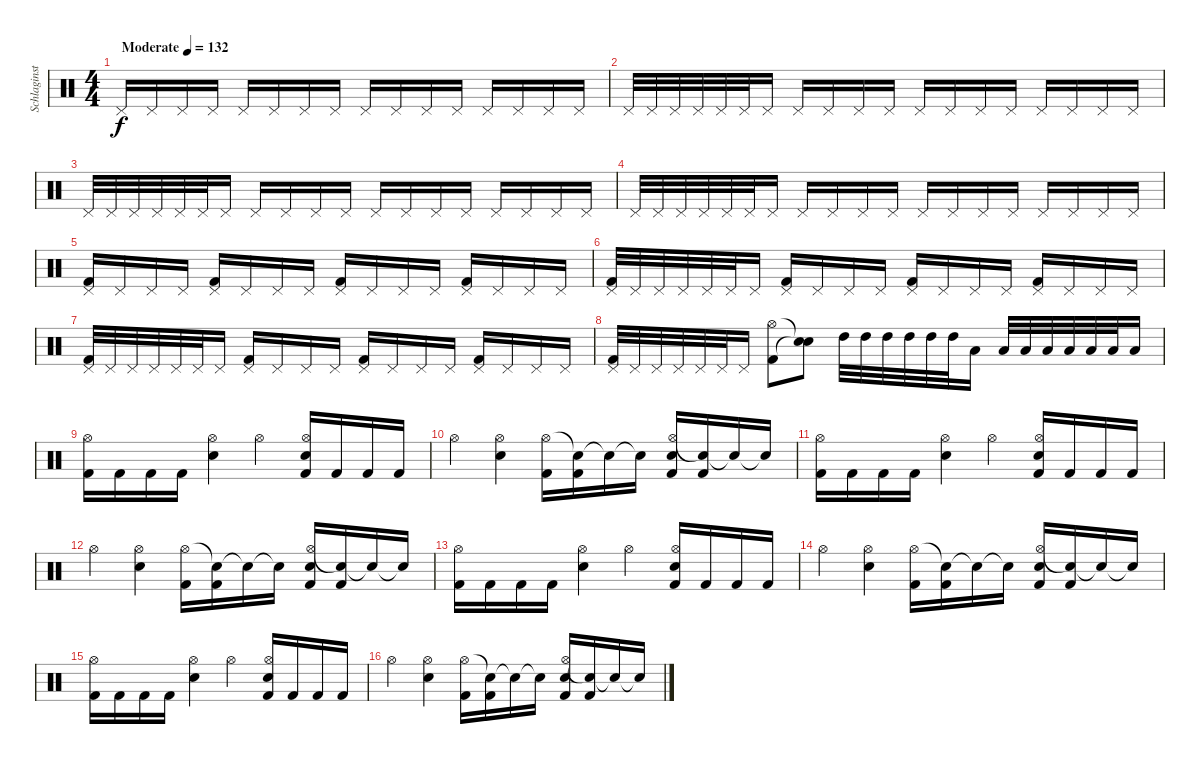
\track ("Schlaginstrumente - Auswahl" "Schlaginst") {instrument percussion}
\staff {score}
\articulation defaults
\ts (4 4)
\tempo (132 "Moderate")
\clef neutral
\ks c "Pedal Hi-Hat (hit)".16{dy f} "Pedal Hi-Hat (hit)".16 "Pedal Hi-Hat (hit)".16 "Pedal Hi-Hat (hit)".16 "Pedal Hi-Hat (hit)".16 "Pedal Hi-Hat (hit)".16 "Pedal Hi-Hat (hit)".16 "Pedal Hi-Hat (hit)".16 "Pedal Hi-Hat (hit)".16 "Pedal Hi-Hat (hit)".16 "Pedal Hi-Hat (hit)".16 "Pedal Hi-Hat (hit)".16 "Pedal Hi-Hat (hit)".16 "Pedal Hi-Hat (hit)".16 "Pedal Hi-Hat (hit)".16 "Pedal Hi-Hat (hit)".16
|
"Pedal Hi-Hat (hit)".32 "Pedal Hi-Hat (hit)".32 "Pedal Hi-Hat (hit)".32 "Pedal Hi-Hat (hit)".32 "Pedal Hi-Hat (hit)".32 "Pedal Hi-Hat (hit)".32 "Pedal Hi-Hat (hit)".16 "Pedal Hi-Hat (hit)".16 "Pedal Hi-Hat (hit)".16 "Pedal Hi-Hat (hit)".16 "Pedal Hi-Hat (hit)".16 "Pedal Hi-Hat (hit)".16 "Pedal Hi-Hat (hit)".16 "Pedal Hi-Hat (hit)".16 "Pedal Hi-Hat (hit)".16 "Pedal Hi-Hat (hit)".16 "Pedal Hi-Hat (hit)".16 "Pedal Hi-Hat (hit)".16 "Pedal Hi-Hat (hit)".16 |
"Pedal Hi-Hat (hit)".32 "Pedal Hi-Hat (hit)".32 "Pedal Hi-Hat (hit)".32 "Pedal Hi-Hat (hit)".32 "Pedal Hi-Hat (hit)".32 "Pedal Hi-Hat (hit)".32 "Pedal Hi-Hat (hit)".16 "Pedal Hi-Hat (hit)".16 "Pedal Hi-Hat (hit)".16 "Pedal Hi-Hat (hit)".16 "Pedal Hi-Hat (hit)".16 "Pedal Hi-Hat (hit)".16 "Pedal Hi-Hat (hit)".16 "Pedal Hi-Hat (hit)".16 "Pedal Hi-Hat (hit)".16 "Pedal Hi-Hat (hit)".16 "Pedal Hi-Hat (hit)".16 "Pedal Hi-Hat (hit)".16 "Pedal Hi-Hat (hit)".16 |
"Pedal Hi-Hat (hit)".32 "Pedal Hi-Hat (hit)".32 "Pedal Hi-Hat (hit)".32 "Pedal Hi-Hat (hit)".32 "Pedal Hi-Hat (hit)".32 "Pedal Hi-Hat (hit)".32 "Pedal Hi-Hat (hit)".16 "Pedal Hi-Hat (hit)".16 "Pedal Hi-Hat (hit)".16 "Pedal Hi-Hat (hit)".16 "Pedal Hi-Hat (hit)".16 "Pedal Hi-Hat (hit)".16 "Pedal Hi-Hat (hit)".16 "Pedal Hi-Hat (hit)".16 "Pedal Hi-Hat (hit)".16 "Pedal Hi-Hat (hit)".16 "Pedal Hi-Hat (hit)".16 "Pedal Hi-Hat (hit)".16 "Pedal Hi-Hat (hit)".16 |
("Pedal Hi-Hat (hit)" "Kick (hit) 2").16 "Pedal Hi-Hat (hit)".16 "Pedal Hi-Hat (hit)".16 "Pedal Hi-Hat (hit)".16 ("Pedal Hi-Hat (hit)" "Kick (hit) 2").16 "Pedal Hi-Hat (hit)".16 "Pedal Hi-Hat (hit)".16 "Pedal Hi-Hat (hit)".16 ("Pedal Hi-Hat (hit)" "Kick (hit) 2").16 "Pedal Hi-Hat (hit)".16 "Pedal Hi-Hat (hit)".16 "Pedal Hi-Hat (hit)".16 ("Pedal Hi-Hat (hit)" "Kick (hit) 2").16 "Pedal Hi-Hat (hit)".16 "Pedal Hi-Hat (hit)".16 "Pedal Hi-Hat (hit)".16 |
("Pedal Hi-Hat (hit)" "Kick (hit) 2").32 "Pedal Hi-Hat (hit)".32 "Pedal Hi-Hat (hit)".32 "Pedal Hi-Hat (hit)".32 "Pedal Hi-Hat (hit)".32 "Pedal Hi-Hat (hit)".32 "Pedal Hi-Hat (hit)".16 ("Pedal Hi-Hat (hit)" "Kick (hit) 2").16 "Pedal Hi-Hat (hit)".16 "Pedal Hi-Hat (hit)".16 "Pedal Hi-Hat (hit)".16 ("Pedal Hi-Hat (hit)" "Kick (hit) 2").16 "Pedal Hi-Hat (hit)".16 "Pedal Hi-Hat (hit)".16 "Pedal Hi-Hat (hit)".16 ("Pedal Hi-Hat (hit)" "Kick (hit) 2").16 "Pedal Hi-Hat (hit)".16 "Pedal Hi-Hat (hit)".16 "Pedal Hi-Hat (hit)".16 |
("Pedal Hi-Hat (hit)" "Kick (hit) 2").32 "Pedal Hi-Hat (hit)".32 "Pedal Hi-Hat (hit)".32 "Pedal Hi-Hat (hit)".32 "Pedal Hi-Hat (hit)".32 "Pedal Hi-Hat (hit)".32 "Pedal Hi-Hat (hit)".16 ("Pedal Hi-Hat (hit)" "Kick (hit) 2").16 "Pedal Hi-Hat (hit)".16 "Pedal Hi-Hat (hit)".16 "Pedal Hi-Hat (hit)".16 ("Pedal Hi-Hat (hit)" "Kick (hit) 2").16 "Pedal Hi-Hat (hit)".16 "Pedal Hi-Hat (hit)".16 "Pedal Hi-Hat (hit)".16 ("Pedal Hi-Hat (hit)" "Kick (hit) 2").16 "Pedal Hi-Hat (hit)".16 "Pedal Hi-Hat (hit)".16 "Pedal Hi-Hat (hit)".16 |
("Pedal Hi-Hat (hit)" "Kick (hit) 2").32 "Pedal Hi-Hat (hit)".32 "Pedal Hi-Hat (hit)".32 "Pedal Hi-Hat (hit)".32 "Pedal Hi-Hat (hit)".32 "Pedal Hi-Hat (hit)".32 "Pedal Hi-Hat (hit)".16 ("Hi-Hat (open)" "Kick (hit) 2").8 ("Snare (hit)"{t} "Snare (hit)"{t}).8 "High Tom (hit)".32 "High Tom (hit)".32 "High Tom (hit)".32 "High Tom (hit)".32 "High Tom (hit)".32 "High Tom (hit)".32 "Low Tom (hit)".16 "Low Tom (hit)".32 "Low Tom (hit)".32 "Low Tom (hit)".32 "Low Tom (hit)".32 "Low Tom (hit)".32 "Low Tom (hit)".32 "Low Floor Tom (hit)".16 |
("Hi-Hat (open)" "Kick (hit) 2").16 "Kick (hit) 2".16 "Kick (hit) 2".16 "Kick (hit) 2".16 ("Hi-Hat (open)" "Electric Snare (hit)").4 "Hi-Hat (open)".4 ("Hi-Hat (open)" "Electric Snare (hit)" "Kick (hit) 2").16 "Kick (hit) 2".16 "Kick (hit) 2".16 "Kick (hit) 2".16 |
"Hi-Hat (open)".4 ("Hi-Hat (open)" "Electric Snare (hit)").4 ("Hi-Hat (open)" "Kick (hit) 2").16 ("Snare (hit)"{t} "Kick (hit) 2").16 "Snare (hit)"{t}.16 "Snare (hit)"{t}.16 ("Hi-Hat (open)" "Electric Snare (hit)" "Kick (hit) 2").16 ("Snare (hit)"{t} "Kick (hit) 2").16 "Snare (hit)"{t}.16 "Snare (hit)"{t}.16 |
("Hi-Hat (open)" "Kick (hit) 2").16 "Kick (hit) 2".16 "Kick (hit) 2".16 "Kick (hit) 2".16 ("Hi-Hat (open)" "Electric Snare (hit)").4 "Hi-Hat (open)".4 ("Hi-Hat (open)" "Electric Snare (hit)" "Kick (hit) 2").16 "Kick (hit) 2".16 "Kick (hit) 2".16 "Kick (hit) 2".16 |
"Hi-Hat (open)".4 ("Hi-Hat (open)" "Electric Snare (hit)").4 ("Hi-Hat (open)" "Kick (hit) 2").16 ("Snare (hit)"{t} "Kick (hit) 2").16 "Snare (hit)"{t}.16 "Snare (hit)"{t}.16 ("Hi-Hat (open)" "Electric Snare (hit)" "Kick (hit) 2").16 ("Snare (hit)"{t} "Kick (hit) 2").16 "Snare (hit)"{t}.16 "Snare (hit)"{t}.16 |
("Hi-Hat (open)" "Kick (hit) 2").16 "Kick (hit) 2".16 "Kick (hit) 2".16 "Kick (hit) 2".16 ("Hi-Hat (open)" "Electric Snare (hit)").4 "Hi-Hat (open)".4 ("Hi-Hat (open)" "Electric Snare (hit)" "Kick (hit) 2").16 "Kick (hit) 2".16 "Kick (hit) 2".16 "Kick (hit) 2".16 |
"Hi-Hat (open)".4 ("Hi-Hat (open)" "Electric Snare (hit)").4 ("Hi-Hat (open)" "Kick (hit) 2").16 ("Snare (hit)"{t} "Kick (hit) 2").16 "Snare (hit)"{t}.16 "Snare (hit)"{t}.16 ("Hi-Hat (open)" "Electric Snare (hit)" "Kick (hit) 2").16 ("Snare (hit)"{t} "Kick (hit) 2").16 "Snare (hit)"{t}.16 "Snare (hit)"{t}.16 |
("Hi-Hat (open)" "Kick (hit) 2").16 "Kick (hit) 2".16 "Kick (hit) 2".16 "Kick (hit) 2".16 ("Hi-Hat (open)" "Electric Snare (hit)").4 "Hi-Hat (open)".4 ("Hi-Hat (open)" "Electric Snare (hit)" "Kick (hit) 2").16 "Kick (hit) 2".16 "Kick (hit) 2".16 "Kick (hit) 2".16 |
"Hi-Hat (open)".4 ("Hi-Hat (open)" "Electric Snare (hit)").4 ("Hi-Hat (open)" "Kick (hit) 2").16 ("Snare (hit)"{t} "Kick (hit) 2").16 "Snare (hit)"{t}.16 "Snare (hit)"{t}.16 ("Hi-Hat (open)" "Electric Snare (hit)" "Kick (hit) 2").16 ("Snare (hit)"{t} "Kick (hit) 2").16 "Snare (hit)"{t}.16 "Snare (hit)"{t}.16
